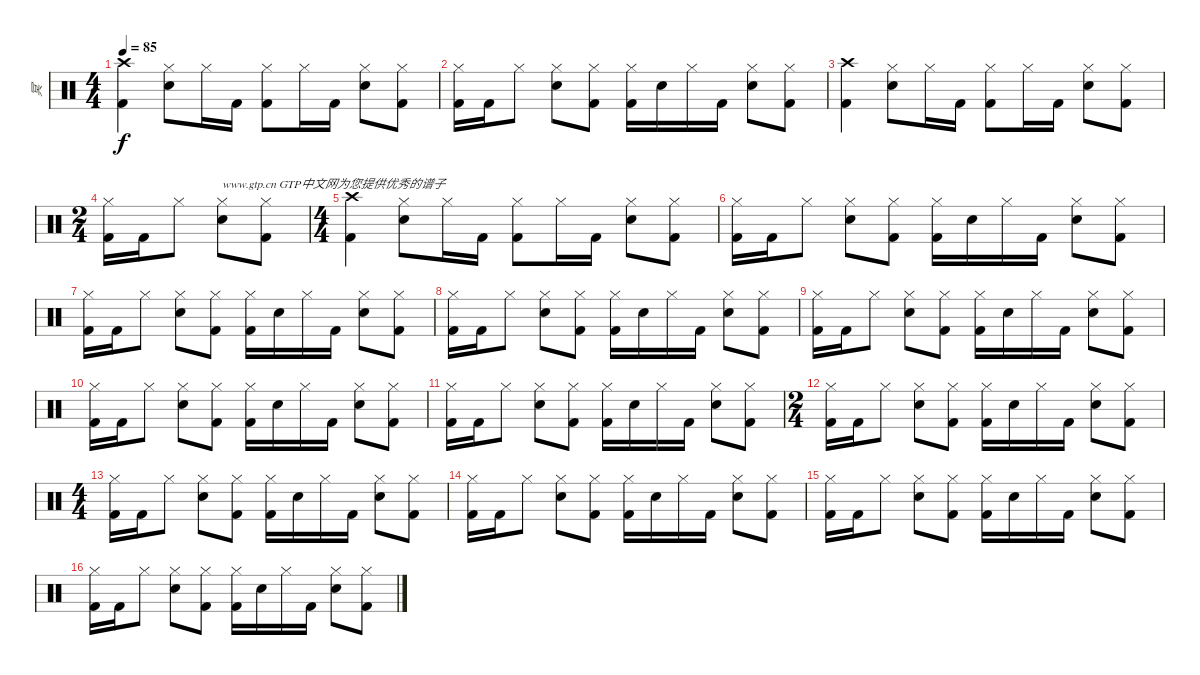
\track ("冥" "冥") {instrument percussion}
\staff {score}
\articulation defaults
\ts (4 4)
\tempo 85
\clef neutral
\ks c
("Crash high (hit)" "Kick (hit) 2").4{dy f} ("Hi-Hat (closed)" "Snare (hit) 2").8 "Hi-Hat (closed)".16 "Kick (hit) 2".16 ("Hi-Hat (closed)" "Kick (hit) 2").8 "Hi-Hat (closed)".16 "Kick (hit) 2".16 ("Hi-Hat (closed)" "Snare (hit) 2").8 ("Hi-Hat (closed)" "Kick (hit) 2").8 |
("Hi-Hat (closed)" "Kick (hit) 2").16 "Kick (hit) 2".16 "Hi-Hat (closed)".8 ("Hi-Hat (closed)" "Snare (hit) 2").8 ("Hi-Hat (closed)" "Kick (hit) 2").8 ("Hi-Hat (closed)" "Kick (hit) 2").16 "Snare (hit) 2".16 "Hi-Hat (closed)".16 "Kick (hit) 2".16 ("Hi-Hat (closed)" "Snare (hit) 2").8 ("Hi-Hat (closed)" "Kick (hit) 2").8 |
("Crash high (hit)" "Kick (hit) 2").4 ("Hi-Hat (closed)" "Snare (hit) 2").8 "Hi-Hat (closed)".16 "Kick (hit) 2".16 ("Hi-Hat (closed)" "Kick (hit) 2").8 "Hi-Hat (closed)".16 "Kick (hit) 2".16 ("Hi-Hat (closed)" "Snare (hit) 2").8 ("Hi-Hat (closed)" "Kick (hit) 2").8 |
\ts (2 4)
("Hi-Hat (closed)" "Kick (hit) 2").16 "Kick (hit) 2".16 "Hi-Hat (closed)".8 ("Hi-Hat (closed)" "Snare (hit) 2").8{txt "www.gtp.cn GTP中文网为您提供优秀的谱子"} ("Hi-Hat (closed)" "Kick (hit) 2").8 |
\ts (4 4)
("Crash high (hit)" "Kick (hit) 2").4 ("Hi-Hat (closed)" "Snare (hit) 2").8 "Hi-Hat (closed)".16 "Kick (hit) 2".16 ("Hi-Hat (closed)" "Kick (hit) 2").8 "Hi-Hat (closed)".16 "Kick (hit) 2".16 ("Hi-Hat (closed)" "Snare (hit) 2").8 ("Hi-Hat (closed)" "Kick (hit) 2").8 |
("Hi-Hat (closed)" "Kick (hit) 2").16 "Kick (hit) 2".16 "Hi-Hat (closed)".8 ("Hi-Hat (closed)" "Snare (hit) 2").8 ("Hi-Hat (closed)" "Kick (hit) 2").8 ("Hi-Hat (closed)" "Kick (hit) 2").16 "Snare (hit) 2".16 "Hi-Hat (closed)".16 "Kick (hit) 2".16 ("Hi-Hat (closed)" "Snare (hit) 2").8 ("Hi-Hat (closed)" "Kick (hit) 2").8 |
("Hi-Hat (closed)" "Kick (hit) 2").16 "Kick (hit) 2".16 "Hi-Hat (closed)".8 ("Hi-Hat (closed)" "Snare (hit) 2").8 ("Hi-Hat (closed)" "Kick (hit) 2").8 ("Hi-Hat (closed)" "Kick (hit) 2").16 "Snare (hit) 2".16 "Hi-Hat (closed)".16 "Kick (hit) 2".16 ("Hi-Hat (closed)" "Snare (hit) 2").8 ("Hi-Hat (closed)" "Kick (hit) 2").8 |
("Hi-Hat (closed)" "Kick (hit) 2").16 "Kick (hit) 2".16 "Hi-Hat (closed)".8 ("Hi-Hat (closed)" "Snare (hit) 2").8 ("Hi-Hat (closed)" "Kick (hit) 2").8 ("Hi-Hat (closed)" "Kick (hit) 2").16 "Snare (hit) 2".16 "Hi-Hat (closed)".16 "Kick (hit) 2".16 ("Hi-Hat (closed)" "Snare (hit) 2").8 ("Hi-Hat (closed)" "Kick (hit) 2").8 |
("Hi-Hat (closed)" "Kick (hit) 2").16 "Kick (hit) 2".16 "Hi-Hat (closed)".8 ("Hi-Hat (closed)" "Snare (hit) 2").8 ("Hi-Hat (closed)" "Kick (hit) 2").8 ("Hi-Hat (closed)" "Kick (hit) 2").16 "Snare (hit) 2".16 "Hi-Hat (closed)".16 "Kick (hit) 2".16 ("Hi-Hat (closed)" "Snare (hit) 2").8 ("Hi-Hat (closed)" "Kick (hit) 2").8 |
("Hi-Hat (closed)" "Kick (hit) 2").16 "Kick (hit) 2".16 "Hi-Hat (closed)".8 ("Hi-Hat (closed)" "Snare (hit) 2").8 ("Hi-Hat (closed)" "Kick (hit) 2").8 ("Hi-Hat (closed)" "Kick (hit) 2").16 "Snare (hit) 2".16 "Hi-Hat (closed)".16 "Kick (hit) 2".16 ("Hi-Hat (closed)" "Snare (hit) 2").8 ("Hi-Hat (closed)" "Kick (hit) 2").8 |
("Hi-Hat (closed)" "Kick (hit) 2").16 "Kick (hit) 2".16 "Hi-Hat (closed)".8 ("Hi-Hat (closed)" "Snare (hit) 2").8 ("Hi-Hat (closed)" "Kick (hit) 2").8 ("Hi-Hat (closed)" "Kick (hit) 2").16 "Snare (hit) 2".16 "Hi-Hat (closed)".16 "Kick (hit) 2".16 ("Hi-Hat (closed)" "Snare (hit) 2").8 ("Hi-Hat (closed)" "Kick (hit) 2").8 |
\ts (2 4)
("Hi-Hat (closed)" "Kick (hit) 2").16 "Kick (hit) 2".16 "Hi-Hat (closed)".8 ("Hi-Hat (closed)" "Snare (hit) 2").8 ("Hi-Hat (closed)" "Kick (hit) 2").8 ("Hi-Hat (closed)" "Kick (hit) 2").16 "Snare (hit) 2".16 "Hi-Hat (closed)".16 "Kick (hit) 2".16 ("Hi-Hat (closed)" "Snare (hit) 2").8 ("Hi-Hat (closed)" "Kick (hit) 2").8 |
\ts (4 4)
("Hi-Hat (closed)" "Kick (hit) 2").16 "Kick (hit) 2".16 "Hi-Hat (closed)".8 ("Hi-Hat (closed)" "Snare (hit) 2").8 ("Hi-Hat (closed)" "Kick (hit) 2").8 ("Hi-Hat (closed)" "Kick (hit) 2").16 "Snare (hit) 2".16 "Hi-Hat (closed)".16 "Kick (hit) 2".16 ("Hi-Hat (closed)" "Snare (hit) 2").8 ("Hi-Hat (closed)" "Kick (hit) 2").8 |
("Hi-Hat (closed)" "Kick (hit) 2").16 "Kick (hit) 2".16 "Hi-Hat (closed)".8 ("Hi-Hat (closed)" "Snare (hit) 2").8 ("Hi-Hat (closed)" "Kick (hit) 2").8 ("Hi-Hat (closed)" "Kick (hit) 2").16 "Snare (hit) 2".16 "Hi-Hat (closed)".16 "Kick (hit) 2".16 ("Hi-Hat (closed)" "Snare (hit) 2").8 ("Hi-Hat (closed)" "Kick (hit) 2").8 |
("Hi-Hat (closed)" "Kick (hit) 2").16 "Kick (hit) 2".16 "Hi-Hat (closed)".8 ("Hi-Hat (closed)" "Snare (hit) 2").8 ("Hi-Hat (closed)" "Kick (hit) 2").8 ("Hi-Hat (closed)" "Kick (hit) 2").16 "Snare (hit) 2".16 "Hi-Hat (closed)".16 "Kick (hit) 2".16 ("Hi-Hat (closed)" "Snare (hit) 2").8 ("Hi-Hat (closed)" "Kick (hit) 2").8 |
("Hi-Hat (closed)" "Kick (hit) 2").16 "Kick (hit) 2".16 "Hi-Hat (closed)".8 ("Hi-Hat (closed)" "Snare (hit) 2").8 ("Hi-Hat (closed)" "Kick (hit) 2").8 ("Hi-Hat (closed)" "Kick (hit) 2").16 "Snare (hit) 2".16 "Hi-Hat (closed)".16 "Kick (hit) 2".16 ("Hi-Hat (closed)" "Snare (hit) 2").8 ("Hi-Hat (closed)" "Kick (hit) 2").8
